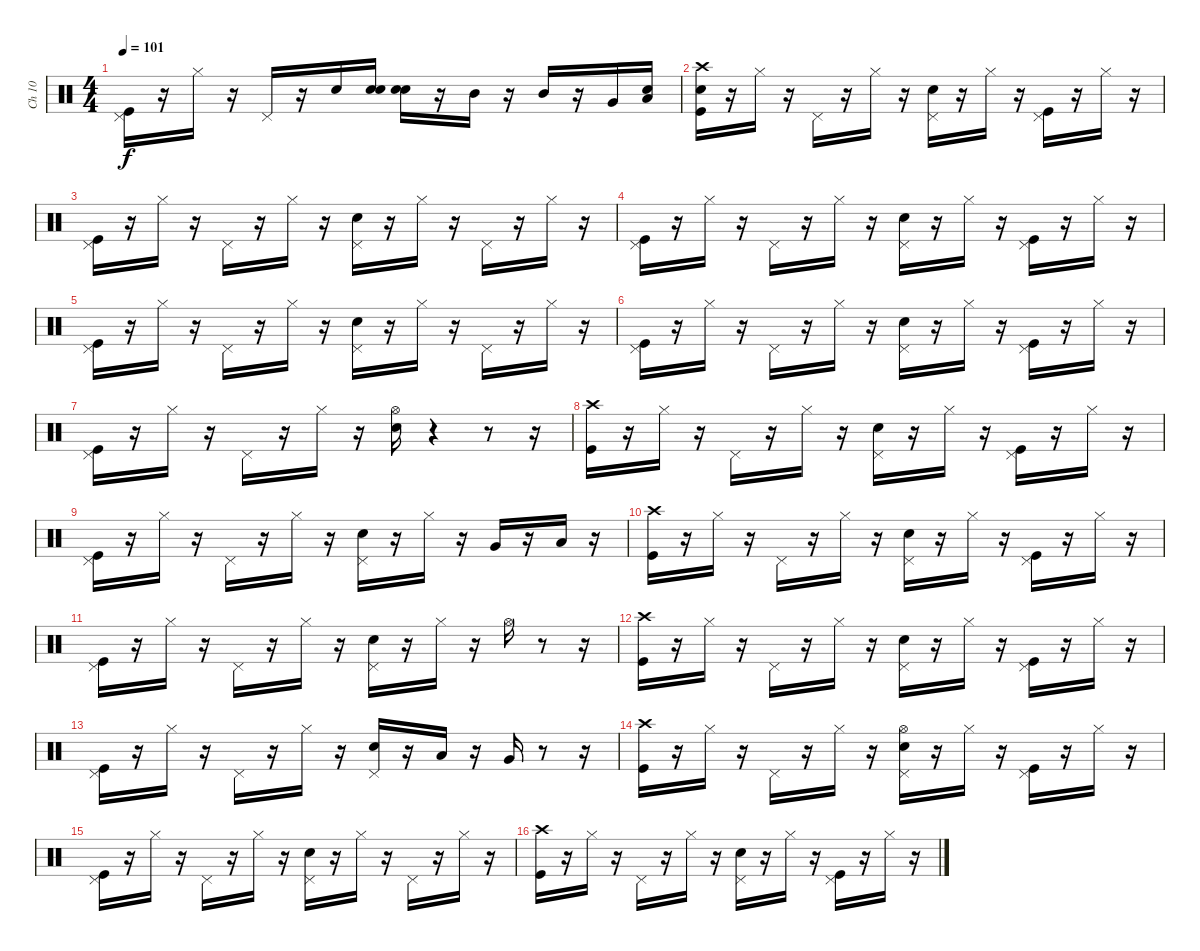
\track ("Ch 10   " "Ch 10   ") {instrument percussion}
\staff {score}
\articulation defaults
\ts (4 4)
\tempo 101
\clef neutral
\ks c
("Kick (hit)" "Pedal Hi-Hat (hit)").16{dy f} r.16 "Hi-Hat (closed)".16 r.16 "Pedal Hi-Hat (hit)".16 r.16 "Snare (hit) 2".16 ("Snare (hit)" "Snare (hit) 2").16 ("Snare (hit)" "Snare (hit) 2").16 r.16 "Mid Tom (hit)".16 r.16 "Mid Tom (hit)".16 r.16 "Very Low Tom (hit)".16 ("Snare (hit)" "Low Floor Tom (hit)").16 |
("Snare (hit)" "Kick (hit)" "Crash high (hit)").16 r.16 "Hi-Hat (closed)".16 r.16 "Pedal Hi-Hat (hit)".16 r.16 "Hi-Hat (closed)".16 r.16 ("Snare (hit) 2" "Pedal Hi-Hat (hit)").16 r.16 "Hi-Hat (closed)".16 r.16 ("Pedal Hi-Hat (hit)" "Kick (hit)").16 r.16 "Hi-Hat (closed)".16 r.16 |
("Kick (hit)" "Pedal Hi-Hat (hit)").16 r.16 "Hi-Hat (closed)".16 r.16 "Pedal Hi-Hat (hit)".16 r.16 "Hi-Hat (closed)".16 r.16 ("Snare (hit) 2" "Pedal Hi-Hat (hit)").16 r.16 "Hi-Hat (closed)".16 r.16 "Pedal Hi-Hat (hit)".16 r.16 "Hi-Hat (closed)".16 r.16 |
("Kick (hit)" "Pedal Hi-Hat (hit)").16 r.16 "Hi-Hat (closed)".16 r.16 "Pedal Hi-Hat (hit)".16 r.16 "Hi-Hat (closed)".16 r.16 ("Snare (hit) 2" "Pedal Hi-Hat (hit)").16 r.16 "Hi-Hat (closed)".16 r.16 ("Kick (hit)" "Pedal Hi-Hat (hit)").16 r.16 "Hi-Hat (closed)".16 r.16 |
("Pedal Hi-Hat (hit)" "Kick (hit)").16 r.16 "Hi-Hat (closed)".16 r.16 "Pedal Hi-Hat (hit)".16 r.16 "Hi-Hat (closed)".16 r.16 ("Pedal Hi-Hat (hit)" "Snare (hit) 2").16 r.16 "Hi-Hat (closed)".16 r.16 "Pedal Hi-Hat (hit)".16 r.16 "Hi-Hat (closed)".16 r.16 |
("Kick (hit)" "Pedal Hi-Hat (hit)").16 r.16 "Hi-Hat (closed)".16 r.16 "Pedal Hi-Hat (hit)".16 r.16 "Hi-Hat (closed)".16 r.16 ("Snare (hit) 2" "Pedal Hi-Hat (hit)").16 r.16 "Hi-Hat (closed)".16 r.16 ("Pedal Hi-Hat (hit)" "Kick (hit)").16 r.16 "Hi-Hat (closed)".16 r.16 |
("Pedal Hi-Hat (hit)" "Kick (hit)").16 r.16 "Hi-Hat (closed)".16 r.16 "Pedal Hi-Hat (hit)".16 r.16 "Hi-Hat (closed)".16 r.16 ("Hi-Hat (open)" "Snare (hit) 2").16 r.4 r.8 r.16 |
("Crash high (hit)" "Kick (hit)").16 r.16 "Hi-Hat (closed)".16 r.16 "Pedal Hi-Hat (hit)".16 r.16 "Hi-Hat (closed)".16 r.16 ("Snare (hit) 2" "Pedal Hi-Hat (hit)").16 r.16 "Hi-Hat (closed)".16 r.16 ("Kick (hit)" "Pedal Hi-Hat (hit)").16 r.16 "Hi-Hat (closed)".16 r.16 |
("Kick (hit)" "Pedal Hi-Hat (hit)").16 r.16 "Hi-Hat (closed)".16 r.16 "Pedal Hi-Hat (hit)".16 r.16 "Hi-Hat (closed)".16 r.16 ("Snare (hit) 2" "Pedal Hi-Hat (hit)").16 r.16 "Hi-Hat (closed)".16 r.16 "Very Low Tom (hit)".16 r.16 "Low Floor Tom (hit)".16 r.16 |
("Kick (hit)" "Crash high (hit)").16 r.16 "Hi-Hat (closed)".16 r.16 "Pedal Hi-Hat (hit)".16 r.16 "Hi-Hat (closed)".16 r.16 ("Snare (hit) 2" "Pedal Hi-Hat (hit)").16 r.16 "Hi-Hat (closed)".16 r.16 ("Kick (hit)" "Pedal Hi-Hat (hit)").16 r.16 "Hi-Hat (closed)".16 r.16 |
("Kick (hit)" "Pedal Hi-Hat (hit)").16 r.16 "Hi-Hat (closed)".16 r.16 "Pedal Hi-Hat (hit)".16 r.16 "Hi-Hat (closed)".16 r.16 ("Snare (hit) 2" "Pedal Hi-Hat (hit)").16 r.16 "Hi-Hat (closed)".16 r.16 "Hi-Hat (open)".16 r.8 r.16 |
("Kick (hit)" "Crash high (hit)").16 r.16 "Hi-Hat (closed)".16 r.16 "Pedal Hi-Hat (hit)".16 r.16 "Hi-Hat (closed)".16 r.16 ("Snare (hit) 2" "Pedal Hi-Hat (hit)").16 r.16 "Hi-Hat (closed)".16 r.16 ("Kick (hit)" "Pedal Hi-Hat (hit)").16 r.16 "Hi-Hat (closed)".16 r.16 |
("Kick (hit)" "Pedal Hi-Hat (hit)").16 r.16 "Hi-Hat (closed)".16 r.16 "Pedal Hi-Hat (hit)".16 r.16 "Hi-Hat (closed)".16 r.16 ("Snare (hit) 2" "Pedal Hi-Hat (hit)").16 r.16 "Low Tom (hit)".16 r.16 "Very Low Tom (hit)".16 r.8 r.16 |
("Kick (hit)" "Crash high (hit)").16 r.16 "Hi-Hat (closed)".16 r.16 "Pedal Hi-Hat (hit)".16 r.16 "Hi-Hat (closed)".16 r.16 ("Pedal Hi-Hat (hit)" "Snare (hit) 2" "Hi-Hat (open)").16 r.16 "Hi-Hat (closed)".16 r.16 ("Pedal Hi-Hat (hit)" "Kick (hit)").16 r.16 "Hi-Hat (closed)".16 r.16 |
("Kick (hit)" "Pedal Hi-Hat (hit)").16 r.16 "Hi-Hat (closed)".16 r.16 "Pedal Hi-Hat (hit)".16 r.16 "Hi-Hat (closed)".16 r.16 ("Snare (hit) 2" "Pedal Hi-Hat (hit)").16 r.16 "Hi-Hat (closed)".16 r.16 "Pedal Hi-Hat (hit)".16 r.16 "Hi-Hat (closed)".16 r.16 |
("Kick (hit)" "Crash high (hit)").16 r.16 "Hi-Hat (closed)".16 r.16 "Pedal Hi-Hat (hit)".16 r.16 "Hi-Hat (closed)".16 r.16 ("Snare (hit) 2" "Pedal Hi-Hat (hit)").16 r.16 "Hi-Hat (closed)".16 r.16 ("Pedal Hi-Hat (hit)" "Kick (hit)").16 r.16 "Hi-Hat (closed)".16 r.16
